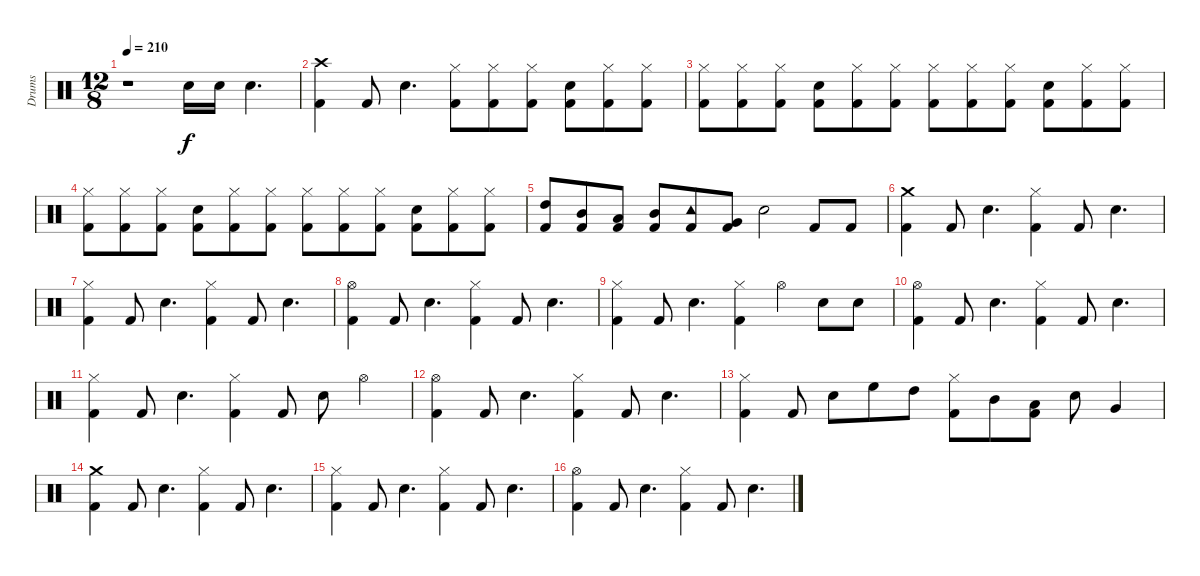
\track ("Drums" "Drums") {instrument percussion}
\staff {score}
\articulation defaults
\ts (12 8)
\tempo 210
\clef neutral
\ks c
r.1{dy f} "Snare (hit) 2".16 "Snare (hit) 2".16 "Snare (hit) 2".4{d} |
("Kick (hit) 2" "Crash high (hit)").4 "Kick (hit) 2".8 "Snare (hit) 2".4{d} ("Kick (hit) 2" "Hi-Hat (closed)").8 ("Kick (hit) 2" "Hi-Hat (closed)").8 ("Kick (hit) 2" "Hi-Hat (closed)").8 ("Kick (hit) 2" "Snare (hit) 2").8 ("Kick (hit) 2" "Hi-Hat (closed)").8 ("Kick (hit) 2" "Hi-Hat (closed)").8 |
("Kick (hit) 2" "Hi-Hat (closed)").8 ("Kick (hit) 2" "Hi-Hat (closed)").8 ("Kick (hit) 2" "Hi-Hat (closed)").8 ("Kick (hit) 2" "Snare (hit) 2").8 ("Kick (hit) 2" "Hi-Hat (closed)").8 ("Kick (hit) 2" "Hi-Hat (closed)").8 ("Kick (hit) 2" "Hi-Hat (closed)").8 ("Kick (hit) 2" "Hi-Hat (closed)").8 ("Kick (hit) 2" "Hi-Hat (closed)").8 ("Kick (hit) 2" "Snare (hit) 2").8 ("Kick (hit) 2" "Hi-Hat (closed)").8 ("Kick (hit) 2" "Hi-Hat (closed)").8 |
("Kick (hit) 2" "Hi-Hat (closed)").8 ("Kick (hit) 2" "Hi-Hat (closed)").8 ("Kick (hit) 2" "Hi-Hat (closed)").8 ("Kick (hit) 2" "Snare (hit) 2").8 ("Kick (hit) 2" "Hi-Hat (closed)").8 ("Kick (hit) 2" "Hi-Hat (closed)").8 ("Kick (hit) 2" "Hi-Hat (closed)").8 ("Kick (hit) 2" "Hi-Hat (closed)").8 ("Kick (hit) 2" "Hi-Hat (closed)").8 ("Kick (hit) 2" "Snare (hit) 2").8 ("Kick (hit) 2" "Hi-Hat (closed)").8 ("Kick (hit) 2" "Hi-Hat (closed)").8 |
("Kick (hit) 2" "High Tom (hit)").8 ("Kick (hit) 2" "Mid Tom (hit)").8 ("Kick (hit) 2" "Low Tom (hit)").8 ("Kick (hit) 2" "Mid Tom (hit)").8 ("Kick (hit) 2" "Tambourine (hit)").8 ("Kick (hit) 2" "Very Low Tom (hit)").8 "Snare (hit) 2".2 "Kick (hit) 2".8 "Kick (hit) 2".8 |
("Kick (hit) 2" "Crash medium (hit)").4 "Kick (hit) 2".8 "Snare (hit) 2".4{d} ("Kick (hit) 2" "Hi-Hat (closed)").4 "Kick (hit) 2".8 "Snare (hit) 2".4{d} |
("Kick (hit) 2" "Hi-Hat (closed)").4 "Kick (hit) 2".8 "Snare (hit) 2".4{d} ("Kick (hit) 2" "Hi-Hat (closed)").4 "Kick (hit) 2".8 "Snare (hit) 2".4{d} |
("Kick (hit) 2" "Hi-Hat (open)").4 "Kick (hit) 2".8 "Snare (hit) 2".4{d} ("Kick (hit) 2" "Hi-Hat (closed)").4 "Kick (hit) 2".8 "Snare (hit) 2".4{d} |
("Kick (hit) 2" "Hi-Hat (closed)").4 "Kick (hit) 2".8 "Snare (hit) 2".4{d} ("Kick (hit) 2" "Hi-Hat (closed)").4 "Hi-Hat (open)".4 "Snare (hit) 2".8 "Snare (hit) 2".8 |
("Kick (hit) 2" "Hi-Hat (open)").4 "Kick (hit) 2".8 "Snare (hit) 2".4{d} ("Kick (hit) 2" "Hi-Hat (closed)").4 "Kick (hit) 2".8 "Snare (hit) 2".4{d} |
("Kick (hit) 2" "Hi-Hat (closed)").4 "Kick (hit) 2".8 "Snare (hit) 2".4{d} ("Kick (hit) 2" "Hi-Hat (closed)").4 "Kick (hit) 2".8 "Snare (hit) 2".8 "Hi-Hat (open)".4 |
("Kick (hit) 2" "Hi-Hat (open)").4 "Kick (hit) 2".8 "Snare (hit) 2".4{d} ("Kick (hit) 2" "Hi-Hat (closed)").4 "Kick (hit) 2".8 "Snare (hit) 2".4{d} |
("Kick (hit) 2" "Hi-Hat (closed)").4 "Kick (hit) 2".8 "Snare (hit) 2".8 "High Floor Tom (hit)".8 "High Tom (hit)".8 ("Kick (hit) 2" "Hi-Hat (closed)").8 "Mid Tom (hit)".8 ("Kick (hit) 2" "Low Tom (hit)").8 "Snare (hit) 2".8 "Very Low Tom (hit)".4 |
("Kick (hit) 2" "Crash medium (hit)").4 "Kick (hit) 2".8 "Snare (hit) 2".4{d} ("Kick (hit) 2" "Hi-Hat (closed)").4 "Kick (hit) 2".8 "Snare (hit) 2".4{d} |
("Kick (hit) 2" "Hi-Hat (closed)").4 "Kick (hit) 2".8 "Snare (hit) 2".4{d} ("Kick (hit) 2" "Hi-Hat (closed)").4 "Kick (hit) 2".8 "Snare (hit) 2".4{d} |
("Kick (hit) 2" "Hi-Hat (open)").4 "Kick (hit) 2".8 "Snare (hit) 2".4{d} ("Kick (hit) 2" "Hi-Hat (closed)").4 "Kick (hit) 2".8 "Snare (hit) 2".4{d}
